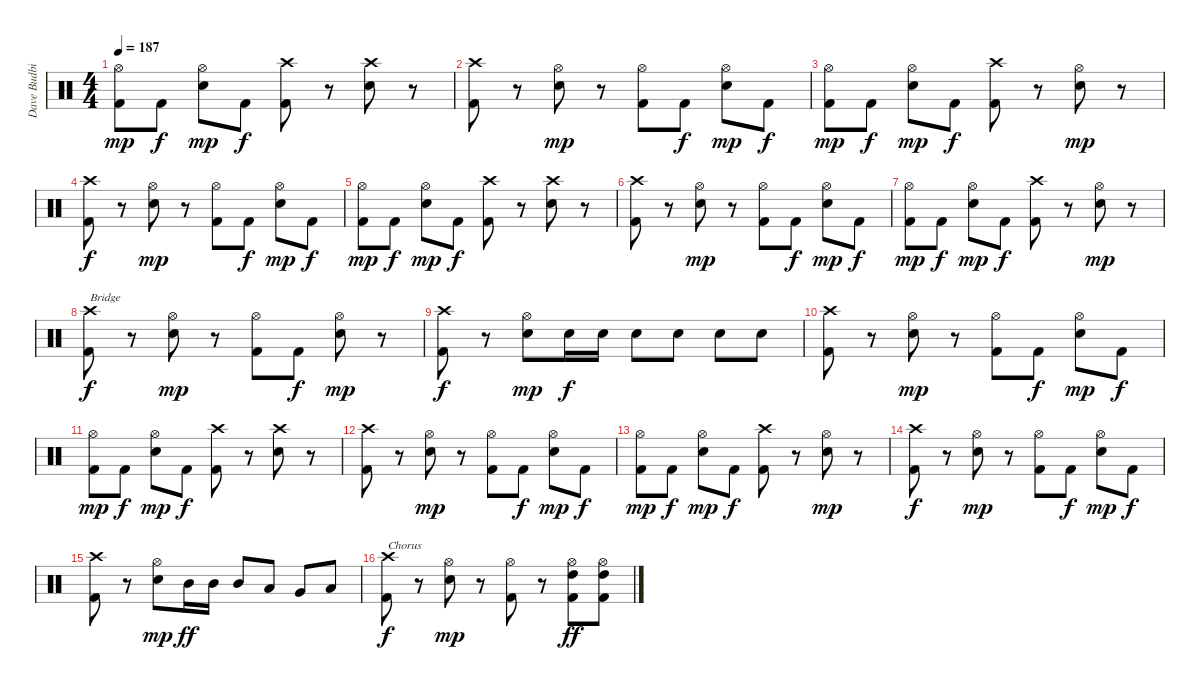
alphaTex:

\track ("Dave Budbill" "Dave Budbi") {instrument percussion}
\staff {score}
\articulation defaults
\ts (4 4)
\tempo 187
\clef neutral
\ks c
("Hi-Hat (open)" "Kick (hit) 2").8{dy mp} "Kick (hit) 2".8{dy f} ("Hi-Hat (open)" "Snare (hit) 2").8{dy mp} "Kick (hit) 2".8{dy f} ("Crash high (hit)" "Kick (hit) 2").8 r.8 ("Crash high (hit)" "Snare (hit) 2").8 r.8 |
("Crash high (hit)" "Kick (hit) 2").8 r.8 ("Hi-Hat (open)" "Snare (hit) 2").8{dy mp} r.8 ("Hi-Hat (open)" "Kick (hit) 2").8 "Kick (hit) 2".8{dy f} ("Hi-Hat (open)" "Snare (hit) 2").8{dy mp} "Kick (hit) 2".8{dy f} |
("Hi-Hat (open)" "Kick (hit) 2").8{dy mp} "Kick (hit) 2".8{dy f} ("Hi-Hat (open)" "Snare (hit) 2").8{dy mp} "Kick (hit) 2".8{dy f} ("Crash high (hit)" "Kick (hit) 2").8 r.8 ("Hi-Hat (open)" "Snare (hit) 2").8{dy mp} r.8 |
("Crash high (hit)" "Kick (hit) 2").8{dy f} r.8 ("Hi-Hat (open)" "Snare (hit) 2").8{dy mp} r.8 ("Hi-Hat (open)" "Kick (hit) 2").8 "Kick (hit) 2".8{dy f} ("Hi-Hat (open)" "Snare (hit) 2").8{dy mp} "Kick (hit) 2".8{dy f} |
("Hi-Hat (open)" "Kick (hit) 2").8{dy mp} "Kick (hit) 2".8{dy f} ("Hi-Hat (open)" "Snare (hit) 2").8{dy mp} "Kick (hit) 2".8{dy f} ("Crash high (hit)" "Kick (hit) 2").8 r.8 ("Crash high (hit)" "Snare (hit) 2").8 r.8 |
("Crash high (hit)" "Kick (hit) 2").8 r.8 ("Hi-Hat (open)" "Snare (hit) 2").8{dy mp} r.8 ("Hi-Hat (open)" "Kick (hit) 2").8 "Kick (hit) 2".8{dy f} ("Hi-Hat (open)" "Snare (hit) 2").8{dy mp} "Kick (hit) 2".8{dy f} |
("Hi-Hat (open)" "Kick (hit) 2").8{dy mp} "Kick (hit) 2".8{dy f} ("Hi-Hat (open)" "Snare (hit) 2").8{dy mp} "Kick (hit) 2".8{dy f} ("Crash high (hit)" "Kick (hit) 2").8 r.8 ("Hi-Hat (open)" "Snare (hit) 2").8{dy mp} r.8 |
("Crash high (hit)" "Kick (hit) 2").8{txt "Bridge" dy f} r.8 ("Hi-Hat (open)" "Snare (hit) 2").8{dy mp} r.8 ("Hi-Hat (open)" "Kick (hit) 2").8 "Kick (hit) 2".8{dy f} ("Hi-Hat (open)" "Snare (hit) 2").8{dy mp} r.8 |
("Crash high (hit)" "Kick (hit) 2").8{dy f} r.8 ("Hi-Hat (open)" "Snare (hit) 2").8{dy mp} "Snare (hit) 2".16{dy f} "Snare (hit) 2".16 "Snare (hit) 2".8 "Snare (hit) 2".8 "Snare (hit) 2".8 "Snare (hit) 2".8 |
("Crash high (hit)" "Kick (hit) 2").8 r.8 ("Hi-Hat (open)" "Snare (hit) 2").8{dy mp} r.8 ("Hi-Hat (open)" "Kick (hit) 2").8 "Kick (hit) 2".8{dy f} ("Hi-Hat (open)" "Snare (hit) 2").8{dy mp} "Kick (hit) 2".8{dy f} |
("Hi-Hat (open)" "Kick (hit) 2").8{dy mp} "Kick (hit) 2".8{dy f} ("Hi-Hat (open)" "Snare (hit) 2").8{dy mp} "Kick (hit) 2".8{dy f} ("Crash high (hit)" "Kick (hit) 2").8 r.8 ("Crash high (hit)" "Snare (hit) 2").8 r.8 |
("Crash high (hit)" "Kick (hit) 2").8 r.8 ("Hi-Hat (open)" "Snare (hit) 2").8{dy mp} r.8 ("Hi-Hat (open)" "Kick (hit) 2").8 "Kick (hit) 2".8{dy f} ("Hi-Hat (open)" "Snare (hit) 2").8{dy mp} "Kick (hit) 2".8{dy f} |
("Hi-Hat (open)" "Kick (hit) 2").8{dy mp} "Kick (hit) 2".8{dy f} ("Hi-Hat (open)" "Snare (hit) 2").8{dy mp} "Kick (hit) 2".8{dy f} ("Crash high (hit)" "Kick (hit) 2").8 r.8 ("Hi-Hat (open)" "Snare (hit) 2").8{dy mp} r.8 |
("Crash high (hit)" "Kick (hit) 2").8{dy f} r.8 ("Hi-Hat (open)" "Snare (hit) 2").8{dy mp} r.8 ("Hi-Hat (open)" "Kick (hit) 2").8 "Kick (hit) 2".8{dy f} ("Hi-Hat (open)" "Snare (hit) 2").8{dy mp} "Kick (hit) 2".8{dy f} |
("Crash high (hit)" "Kick (hit) 2").8 r.8 ("Hi-Hat (open)" "Snare (hit) 2").8{dy mp} "Mid Tom (hit)".16{dy ff} "Mid Tom (hit)".16 "Mid Tom (hit)".8 "Low Tom (hit)".8 "Very Low Tom (hit)".8 "Low Floor Tom (hit)".8 |
("Crash high (hit)" "Kick (hit) 2").8{txt "Chorus" dy f} r.8 ("Hi-Hat (open)" "Snare (hit) 2").8{dy mp} r.8 ("Hi-Hat (open)" "Kick (hit) 2").8 r.8 ("Hi-Hat (open)" "High Tom (hit)" "Kick (hit) 2").8{dy ff} ("Hi-Hat (open)" "High Tom (hit)" "Kick (hit) 2").8
